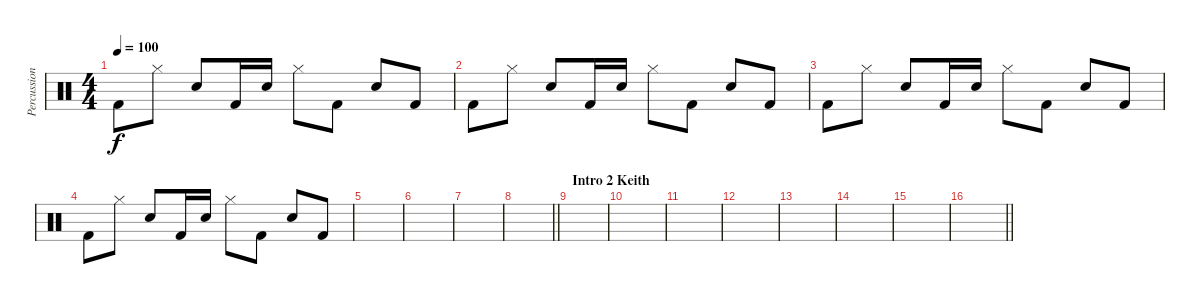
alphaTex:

\track ("Percussion" "Percussion") {instrument percussion}
\staff {score}
\articulation defaults
\ts (4 4)
\tempo 100
\clef neutral
\ks c "Kick (hit) 2".8{dy f} "Hi-Hat (closed)".8 "Electric Snare (hit)".8 "Kick (hit) 2".16 "Electric Snare (hit)".16 "Hi-Hat (closed)".8 "Kick (hit) 2".8 "Electric Snare (hit)".8 "Kick (hit) 2".8
|
"Kick (hit) 2".8 "Hi-Hat (closed)".8 "Electric Snare (hit)".8 "Kick (hit) 2".16 "Electric Snare (hit)".16 "Hi-Hat (closed)".8 "Kick (hit) 2".8 "Electric Snare (hit)".8 "Kick (hit) 2".8 |
"Kick (hit) 2".8 "Hi-Hat (closed)".8 "Electric Snare (hit)".8 "Kick (hit) 2".16 "Electric Snare (hit)".16 "Hi-Hat (closed)".8 "Kick (hit) 2".8 "Electric Snare (hit)".8 "Kick (hit) 2".8 |
"Kick (hit) 2".8 "Hi-Hat (closed)".8 "Electric Snare (hit)".8 "Kick (hit) 2".16 "Electric Snare (hit)".16 "Hi-Hat (closed)".8 "Kick (hit) 2".8 "Electric Snare (hit)".8 "Kick (hit) 2".8 |
|
|
|
\barLineRight lightlight
|
\section ("" "Intro 2 Keith")
|
|
|
|
|
|
|
\barLineRight lightlight
